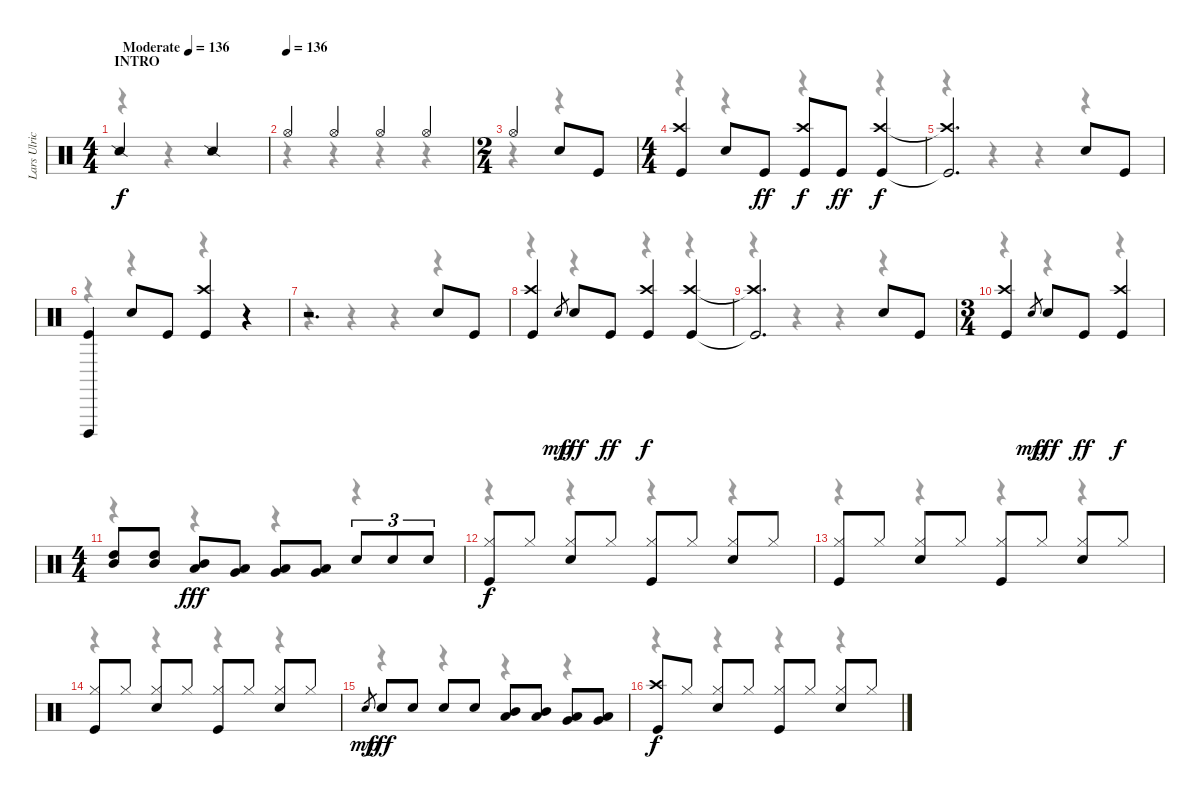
\track ("Lars Ulrich" "Lars Ulric") {instrument percussion}
\staff {score}
\articulation defaults
\voice
\ts (4 4)
\section ("" "INTRO")
\tempo (136 "Moderate")
\clef neutral
\ks c "Snare (side stick) 2".2{dy f} "Snare (side stick) 2".2
|
\tempo (136)
"Hi-Hat (open)".4 "Hi-Hat (open)".4 "Hi-Hat (open)".4 "Hi-Hat (open)".4 |
\ts (2 4)
"Hi-Hat (open)".4 "Snare (hit) 2".8 "Kick (hit)".8 |
\ts (4 4)
("Crash high (hit)" "Kick (hit)").4 "Snare (hit) 2".8 "Kick (hit)".8{dy ff} ("Crash high (hit)" "Kick (hit)").8{dy f} "Kick (hit)".8{dy ff} ("Crash high (hit)" "Kick (hit)").4{dy f} |
("Crash high (hit)"{t} "Kick (hit)"{t}).2{d} "Snare (hit) 2".8 "Kick (hit)".8 |
("Cuica (open)" "Kick (hit)").4 "Snare (hit) 2".8 "Kick (hit)".8 ("Crash high (hit)" "Kick (hit)").4 r.4 |
r.2{d} "Snare (hit) 2".8 "Kick (hit)".8 |
("Crash high (hit)" "Kick (hit)").4 "Snare (hit)".8{gr dy mp} "Snare (hit) 2".8{dy fff} "Kick (hit)".8{dy ff} ("Crash high (hit)" "Kick (hit)").4{dy f} ("Crash high (hit)" "Kick (hit)").4 |
("Crash high (hit)"{t} "Kick (hit)"{t}).2{d} "Snare (hit) 2".8 "Kick (hit)".8 |
\ts (3 4)
("Crash high (hit)" "Kick (hit)").4 "Snare (hit)".8{gr dy mp} "Snare (hit) 2".8{dy fff} "Kick (hit)".8{dy ff} ("Crash high (hit)" "Kick (hit)").4{dy f} |
\ts (4 4)
("High Tom (hit)" "Mid Tom (hit)").8 ("High Tom (hit)" "Mid Tom (hit)").8 ("Mid Tom (hit)" "Low Tom (hit)").8{dy fff} ("Low Tom (hit)" "Very Low Tom (hit)").8 ("Low Tom (hit)" "Very Low Tom (hit)").8 ("Very Low Tom (hit)" "Low Floor Tom (hit)").8 "Snare (hit) 2".8{tu (3 2)} "Snare (hit) 2".8{tu (3 2)} "Snare (hit) 2".8{tu (3 2)} |
("Hi-Hat (closed)" "Kick (hit)").8{dy f} "Hi-Hat (closed)".8 ("Hi-Hat (closed)" "Snare (hit) 2").8 "Hi-Hat (closed)".8 ("Hi-Hat (closed)" "Kick (hit)").8 "Hi-Hat (closed)".8 ("Hi-Hat (closed)" "Snare (hit) 2").8 "Hi-Hat (closed)".8 |
("Hi-Hat (closed)" "Kick (hit)").8 "Hi-Hat (closed)".8 ("Hi-Hat (closed)" "Snare (hit) 2").8 "Hi-Hat (closed)".8 ("Hi-Hat (closed)" "Kick (hit)").8 "Hi-Hat (closed)".8 ("Hi-Hat (closed)" "Snare (hit) 2").8 "Hi-Hat (closed)".8 |
("Hi-Hat (closed)" "Kick (hit)").8 "Hi-Hat (closed)".8 ("Hi-Hat (closed)" "Snare (hit) 2").8 "Hi-Hat (closed)".8 ("Hi-Hat (closed)" "Kick (hit)").8 "Hi-Hat (closed)".8 ("Hi-Hat (closed)" "Snare (hit) 2").8 "Hi-Hat (closed)".8 |
"Snare (hit)".8{gr dy mp} "Snare (hit) 2".8{dy fff} "Snare (hit) 2".8 "Snare (hit) 2".8 "Snare (hit) 2".8 ("Mid Tom (hit)" "Low Tom (hit)").8 ("Mid Tom (hit)" "Low Tom (hit)").8 ("Low Tom (hit)" "Very Low Tom (hit)").8 ("Low Tom (hit)" "Very Low Tom (hit)").8 |
("Crash high (hit)" "Kick (hit)").8{dy f} "Hi-Hat (closed)".8 ("Hi-Hat (closed)" "Snare (hit) 2").8 "Hi-Hat (closed)".8 ("Hi-Hat (closed)" "Kick (hit)").8 "Hi-Hat (closed)".8 ("Hi-Hat (closed)" "Snare (hit) 2").8 "Hi-Hat (closed)".8
\voice
\clef neutral
\ottava regular
\simile none
\ks c
r.4{dy f} r.4 |
r.4 r.4 r.4 r.4 |
r.4 r.4 |
r.4 r.4 r.4 r.4 |
r.4 r.4 r.4 r.4 |
r.4 r.4 r.4 r.4 |
r.4 r.4 r.4 r.4 |
r.4 r.4 r.4 r.4 |
r.4 r.4 r.4 r.4 |
r.4 r.4 r.4 |
r.4 r.4 r.4 r.4 |
r.4 r.4 r.4 r.4 |
r.4 r.4 r.4 r.4 |
r.4 r.4 r.4 r.4 |
r.4 r.4 r.4 r.4 |
r.4 r.4 r.4 r.4
